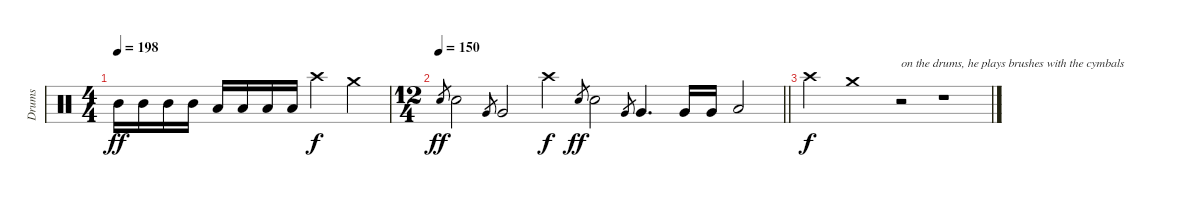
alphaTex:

\track ("Drums" "Drums") {instrument percussion}
\staff {score}
\articulation defaults
\ts (4 4)
\tempo 198
\clef neutral
\ks c "Mid Tom (hit)".16{dy ff} "Mid Tom (hit)".16 "Mid Tom (hit)".16 "Mid Tom (hit)".16 "Low Tom (hit)".16 "Low Tom (hit)".16 "Low Tom (hit)".16 "Low Tom (hit)".16 "Crash high (hit)".4{dy f} "Crash medium (hit)".4
|
\ts (12 4)
\tempo 150
\barLineRight lightlight "Snare (hit) 2".8{gr dy ff} "Snare (hit) 2".2 "Very Low Tom (hit)".8{gr} "Very Low Tom (hit)".2 "Crash high (hit)".2{dy f} "Snare (hit) 2".8{gr dy ff} "Snare (hit) 2".2 "Very Low Tom (hit)".8{gr} "Very Low Tom (hit)".4{d} "Very Low Tom (hit)".16 "Very Low Tom (hit)".16 "Low Floor Tom (hit)".2
|
\section ("" "")
"Crash high (hit)".2{dy f} "Crash medium (hit)".1 r.2{txt "on the drums, he plays brushes with the cymbals"} r.1
